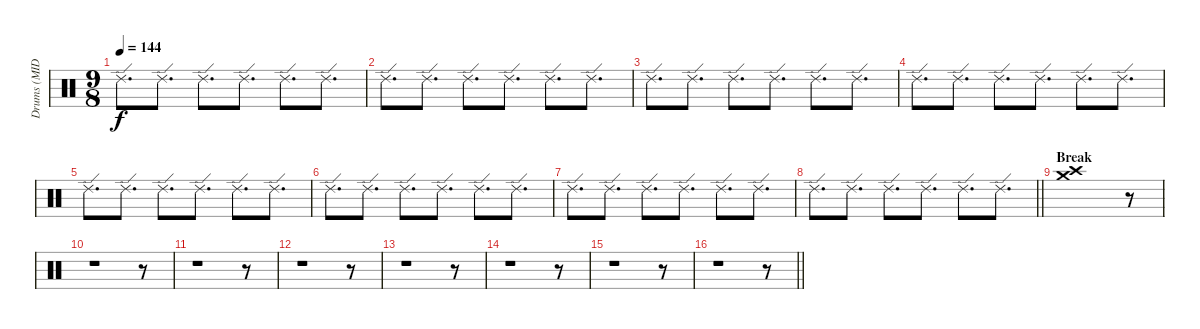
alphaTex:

\track ("Drums (MIDI!)" "Drums (MID") {instrument percussion}
\staff {score}
\articulation defaults
\ts (9 8)
\tempo 144
\clef neutral
\ks c "Ride (edge) 2".8{d dy f} "Ride (edge) 2".8{d} "Ride (edge) 2".8{d} "Ride (edge) 2".8{d} "Ride (edge) 2".8{d} "Ride (edge) 2".8{d}
|
"Ride (edge) 2".8{d} "Ride (edge) 2".8{d} "Ride (edge) 2".8{d} "Ride (edge) 2".8{d} "Ride (edge) 2".8{d} "Ride (edge) 2".8{d} |
"Ride (edge) 2".8{d} "Ride (edge) 2".8{d} "Ride (edge) 2".8{d} "Ride (edge) 2".8{d} "Ride (edge) 2".8{d} "Ride (edge) 2".8{d} |
"Ride (edge) 2".8{d} "Ride (edge) 2".8{d} "Ride (edge) 2".8{d} "Ride (edge) 2".8{d} "Ride (edge) 2".8{d} "Ride (edge) 2".8{d} |
"Ride (edge) 2".8{d} "Ride (edge) 2".8{d} "Ride (edge) 2".8{d} "Ride (edge) 2".8{d} "Ride (edge) 2".8{d} "Ride (edge) 2".8{d} |
"Ride (edge) 2".8{d} "Ride (edge) 2".8{d} "Ride (edge) 2".8{d} "Ride (edge) 2".8{d} "Ride (edge) 2".8{d} "Ride (edge) 2".8{d} |
"Ride (edge) 2".8{d} "Ride (edge) 2".8{d} "Ride (edge) 2".8{d} "Ride (edge) 2".8{d} "Ride (edge) 2".8{d} "Ride (edge) 2".8{d} |
\barLineRight lightlight "Ride (edge) 2".8{d} "Ride (edge) 2".8{d} "Ride (edge) 2".8{d} "Ride (edge) 2".8{d} "Ride (edge) 2".8{d} "Ride (edge) 2".8{d}
|
\section ("" "Break")
("Crash medium (hit)" "Crash high (hit)").1 r.8 |
r.1 r.8 |
r.1 r.8 |
r.1 r.8 |
r.1 r.8 |
r.1 r.8 |
r.1 r.8 |
\barLineRight lightlight
r.1 r.8
